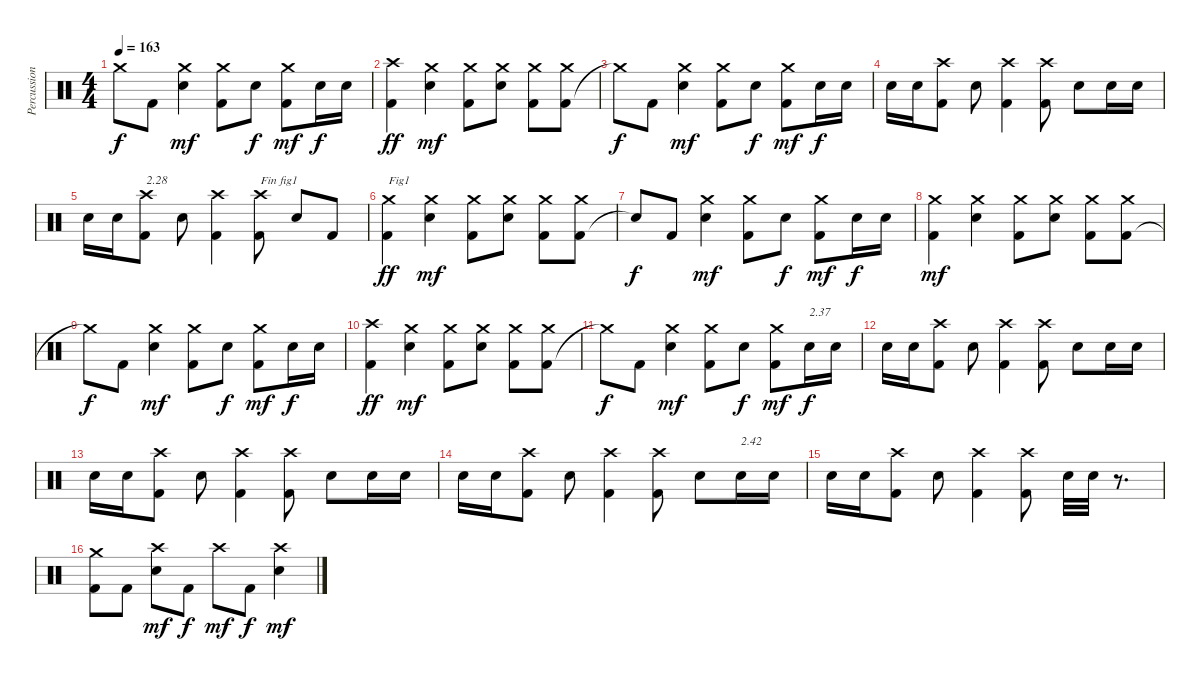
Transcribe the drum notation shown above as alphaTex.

\track ("Percussions" "Percussion") {instrument percussion}
\staff {score}
\articulation defaults
\ts (4 4)
\tempo 163
\clef neutral
\ks c "Crash medium (hit)"{t}.8{dy f} "Kick (hit) 2".8
("Electric Snare (hit)" "Crash medium (hit)").4{dy mf} ("Kick (hit) 2" "Crash medium (hit)").8 "Electric Snare (hit)".8{dy f} ("Kick (hit) 2" "Crash medium (hit)").8{dy mf} "Electric Snare (hit)".16{dy f} "Electric Snare (hit)".16 |
("Kick (hit) 2" "Crash high (hit)").4{dy ff} ("Electric Snare (hit)" "Crash medium (hit)").4{dy mf} ("Kick (hit) 2" "Crash medium (hit)").8 ("Electric Snare (hit)" "Crash medium (hit)").8 ("Kick (hit) 2" "Crash medium (hit)").8 ("Kick (hit) 2" "Crash medium (hit)").8 |
"Crash medium (hit)"{t}.8{dy f} "Kick (hit) 2".8 ("Electric Snare (hit)" "Crash medium (hit)").4{dy mf} ("Kick (hit) 2" "Crash medium (hit)").8 "Electric Snare (hit)".8{dy f} ("Kick (hit) 2" "Crash medium (hit)").8{dy mf} "Electric Snare (hit)".16{dy f} "Electric Snare (hit)".16 |
"Electric Snare (hit)".16 "Electric Snare (hit)".16 ("Kick (hit) 2" "Crash high (hit)").8 "Electric Snare (hit)".8 ("Kick (hit) 2" "Crash high (hit)").4 ("Kick (hit) 2" "Crash high (hit)").8 "Electric Snare (hit)".8 "Electric Snare (hit)".16 "Electric Snare (hit)".16 |
"Electric Snare (hit)".16 "Electric Snare (hit)".16 ("Kick (hit) 2" "Crash high (hit)").8{txt "2.28"} "Electric Snare (hit)".8 ("Kick (hit) 2" "Crash high (hit)").4 ("Kick (hit) 2" "Crash high (hit)").8{txt "Fin fig1"} "Electric Snare (hit)".8 "Kick (hit) 2".8 |
("Kick (hit) 2" "Crash medium (hit)").4{txt "Fig1" dy ff} ("Electric Snare (hit)" "Crash medium (hit)").4{dy mf} ("Kick (hit) 2" "Crash medium (hit)").8 ("Electric Snare (hit)" "Crash medium (hit)").8 ("Kick (hit) 2" "Crash medium (hit)").8 ("Kick (hit) 2" "Crash medium (hit)").8 |
"Snare (hit)"{t}.8{dy f} "Kick (hit) 2".8 ("Electric Snare (hit)" "Crash medium (hit)").4{dy mf} ("Kick (hit) 2" "Crash medium (hit)").8 "Electric Snare (hit)".8{dy f} ("Kick (hit) 2" "Crash medium (hit)").8{dy mf} "Electric Snare (hit)".16{dy f} "Electric Snare (hit)".16 |
("Kick (hit) 2" "Crash medium (hit)").4{dy mf} ("Electric Snare (hit)" "Crash medium (hit)").4 ("Kick (hit) 2" "Crash medium (hit)").8 ("Electric Snare (hit)" "Crash medium (hit)").8 ("Kick (hit) 2" "Crash medium (hit)").8 ("Kick (hit) 2" "Crash medium (hit)").8 |
"Crash medium (hit)"{t}.8{dy f} "Kick (hit) 2".8 ("Electric Snare (hit)" "Crash medium (hit)").4{dy mf} ("Kick (hit) 2" "Crash medium (hit)").8 "Electric Snare (hit)".8{dy f} ("Kick (hit) 2" "Crash medium (hit)").8{dy mf} "Electric Snare (hit)".16{dy f} "Electric Snare (hit)".16 |
("Kick (hit) 2" "Crash high (hit)").4{dy ff} ("Electric Snare (hit)" "Crash medium (hit)").4{dy mf} ("Kick (hit) 2" "Crash medium (hit)").8 ("Electric Snare (hit)" "Crash medium (hit)").8 ("Kick (hit) 2" "Crash medium (hit)").8 ("Kick (hit) 2" "Crash medium (hit)").8 |
"Crash medium (hit)"{t}.8{dy f} "Kick (hit) 2".8 ("Electric Snare (hit)" "Crash medium (hit)").4{dy mf} ("Kick (hit) 2" "Crash medium (hit)").8 "Electric Snare (hit)".8{dy f} ("Kick (hit) 2" "Crash medium (hit)").8{dy mf} "Electric Snare (hit)".16{txt "2.37" dy f} "Electric Snare (hit)".16 |
"Electric Snare (hit)".16 "Electric Snare (hit)".16 ("Kick (hit) 2" "Crash high (hit)").8 "Electric Snare (hit)".8 ("Kick (hit) 2" "Crash high (hit)").4 ("Kick (hit) 2" "Crash high (hit)").8 "Electric Snare (hit)".8 "Electric Snare (hit)".16 "Electric Snare (hit)".16 |
"Electric Snare (hit)".16 "Electric Snare (hit)".16 ("Kick (hit) 2" "Crash high (hit)").8 "Electric Snare (hit)".8 ("Kick (hit) 2" "Crash high (hit)").4 ("Kick (hit) 2" "Crash high (hit)").8 "Electric Snare (hit)".8 "Electric Snare (hit)".16 "Electric Snare (hit)".16 |
"Electric Snare (hit)".16 "Electric Snare (hit)".16 ("Kick (hit) 2" "Crash high (hit)").8 "Electric Snare (hit)".8 ("Kick (hit) 2" "Crash high (hit)").4 ("Kick (hit) 2" "Crash high (hit)").8 "Electric Snare (hit)".8 "Electric Snare (hit)".16{txt "2.42"} "Electric Snare (hit)".16 |
"Electric Snare (hit)".16 "Electric Snare (hit)".16 ("Kick (hit) 2" "Crash high (hit)").8 "Electric Snare (hit)".8 ("Kick (hit) 2" "Crash high (hit)").4 ("Kick (hit) 2" "Crash high (hit)").8 "Electric Snare (hit)".32 "Electric Snare (hit)".32 r.8{d} |
("Kick (hit) 2" "Crash medium (hit)").8 "Kick (hit) 2".8 ("Electric Snare (hit)" "Crash high (hit)").8{dy mf} "Kick (hit) 2".8{dy f} "Crash high (hit)".8{dy mf} "Kick (hit) 2".8{dy f} ("Electric Snare (hit)" "Crash high (hit)").4{dy mf}
